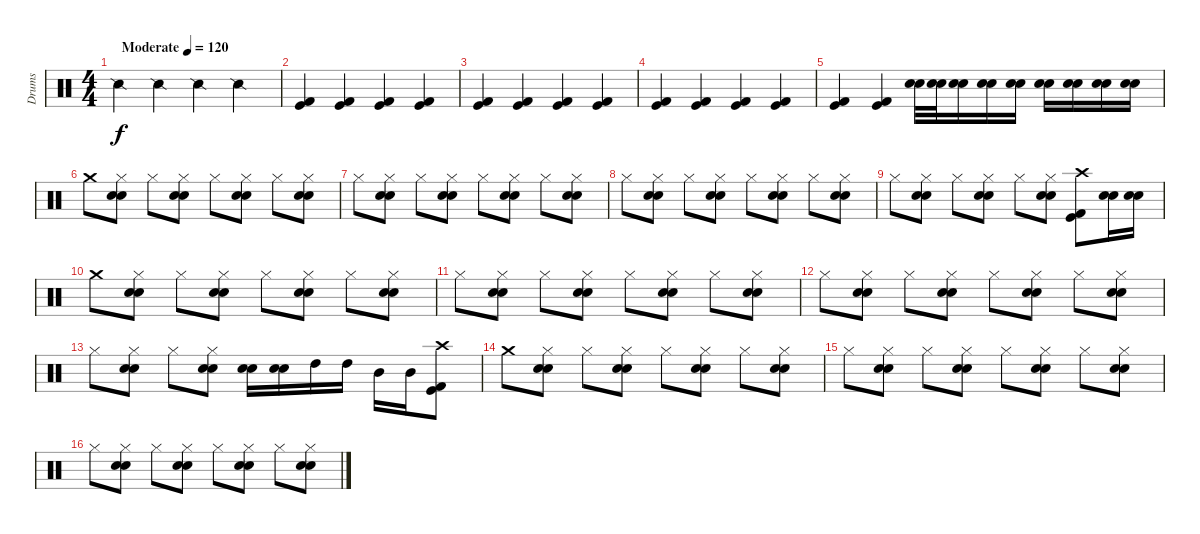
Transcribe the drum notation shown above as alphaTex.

\track ("Drums" "Drums") {instrument percussion}
\staff {score}
\articulation defaults
\ts (4 4)
\tempo (120 "Moderate")
\clef neutral
\ks c "Snare (side stick) 2".4{dy f} "Snare (side stick) 2".4 "Snare (side stick) 2".4 "Snare (side stick) 2".4
|
("Kick (hit) 2" "Kick (hit)").4 ("Kick (hit) 2" "Kick (hit)").4 ("Kick (hit) 2" "Kick (hit)").4 ("Kick (hit) 2" "Kick (hit)").4 |
("Kick (hit) 2" "Kick (hit)").4 ("Kick (hit) 2" "Kick (hit)").4 ("Kick (hit) 2" "Kick (hit)").4 ("Kick (hit) 2" "Kick (hit)").4 |
("Kick (hit) 2" "Kick (hit)").4 ("Kick (hit) 2" "Kick (hit)").4 ("Kick (hit) 2" "Kick (hit)").4 ("Kick (hit) 2" "Kick (hit)").4 |
("Kick (hit) 2" "Kick (hit)").4 ("Kick (hit) 2" "Kick (hit)").4 ("Electric Snare (hit)" "Snare (hit) 2").32 ("Electric Snare (hit)" "Snare (hit) 2").32 ("Electric Snare (hit)" "Snare (hit) 2").16 ("Electric Snare (hit)" "Snare (hit) 2").16 ("Electric Snare (hit)" "Snare (hit) 2").16 ("Electric Snare (hit)" "Snare (hit) 2").16 ("Electric Snare (hit)" "Snare (hit) 2").16 ("Electric Snare (hit)" "Snare (hit) 2").16 ("Electric Snare (hit)" "Snare (hit) 2").16 |
"Crash medium (hit)".8 ("Hi-Hat (closed)" "Electric Snare (hit)" "Snare (hit) 2").8 "Hi-Hat (closed)".8 ("Hi-Hat (closed)" "Electric Snare (hit)" "Snare (hit) 2").8 "Hi-Hat (closed)".8 ("Hi-Hat (closed)" "Electric Snare (hit)" "Snare (hit) 2").8 "Hi-Hat (closed)".8 ("Hi-Hat (closed)" "Electric Snare (hit)" "Snare (hit) 2").8 |
"Hi-Hat (closed)".8 ("Hi-Hat (closed)" "Electric Snare (hit)" "Snare (hit) 2").8 "Hi-Hat (closed)".8 ("Hi-Hat (closed)" "Electric Snare (hit)" "Snare (hit) 2").8 "Hi-Hat (closed)".8 ("Hi-Hat (closed)" "Electric Snare (hit)" "Snare (hit) 2").8 "Hi-Hat (closed)".8 ("Hi-Hat (closed)" "Electric Snare (hit)" "Snare (hit) 2").8 |
"Hi-Hat (closed)".8 ("Hi-Hat (closed)" "Electric Snare (hit)" "Snare (hit) 2").8 "Hi-Hat (closed)".8 ("Hi-Hat (closed)" "Electric Snare (hit)" "Snare (hit) 2").8 "Hi-Hat (closed)".8 ("Hi-Hat (closed)" "Electric Snare (hit)" "Snare (hit) 2").8 "Hi-Hat (closed)".8 ("Hi-Hat (closed)" "Electric Snare (hit)" "Snare (hit) 2").8 |
"Hi-Hat (closed)".8 ("Hi-Hat (closed)" "Electric Snare (hit)" "Snare (hit) 2").8 "Hi-Hat (closed)".8 ("Hi-Hat (closed)" "Electric Snare (hit)" "Snare (hit) 2").8 "Hi-Hat (closed)".8 ("Hi-Hat (closed)" "Electric Snare (hit)" "Snare (hit) 2").8 ("Crash high (hit)" "Kick (hit) 2" "Kick (hit)").8 ("Electric Snare (hit)" "Snare (hit) 2").16 ("Electric Snare (hit)" "Snare (hit) 2").16 |
"Crash medium (hit)".8 ("Hi-Hat (closed)" "Electric Snare (hit)" "Snare (hit) 2").8 "Hi-Hat (closed)".8 ("Hi-Hat (closed)" "Electric Snare (hit)" "Snare (hit) 2").8 "Hi-Hat (closed)".8 ("Hi-Hat (closed)" "Electric Snare (hit)" "Snare (hit) 2").8 "Hi-Hat (closed)".8 ("Hi-Hat (closed)" "Electric Snare (hit)" "Snare (hit) 2").8 |
"Hi-Hat (closed)".8 ("Hi-Hat (closed)" "Electric Snare (hit)" "Snare (hit) 2").8 "Hi-Hat (closed)".8 ("Hi-Hat (closed)" "Electric Snare (hit)" "Snare (hit) 2").8 "Hi-Hat (closed)".8 ("Hi-Hat (closed)" "Electric Snare (hit)" "Snare (hit) 2").8 "Hi-Hat (closed)".8 ("Hi-Hat (closed)" "Electric Snare (hit)" "Snare (hit) 2").8 |
"Hi-Hat (closed)".8 ("Hi-Hat (closed)" "Electric Snare (hit)" "Snare (hit) 2").8 "Hi-Hat (closed)".8 ("Hi-Hat (closed)" "Electric Snare (hit)" "Snare (hit) 2").8 "Hi-Hat (closed)".8 ("Hi-Hat (closed)" "Electric Snare (hit)" "Snare (hit) 2").8 "Hi-Hat (closed)".8 ("Hi-Hat (closed)" "Electric Snare (hit)" "Snare (hit) 2").8 |
"Hi-Hat (closed)".8 ("Hi-Hat (closed)" "Electric Snare (hit)" "Snare (hit) 2").8 "Hi-Hat (closed)".8 ("Hi-Hat (closed)" "Electric Snare (hit)" "Snare (hit) 2").8 ("Electric Snare (hit)" "Snare (hit) 2").16 ("Electric Snare (hit)" "Snare (hit) 2").16 "High Tom (hit)".16 "High Tom (hit)".16 "Mid Tom (hit)".16 "Mid Tom (hit)".16 ("Kick (hit) 2" "Kick (hit)" "Crash high (hit)").8 |
"Crash medium (hit)".8 ("Hi-Hat (closed)" "Electric Snare (hit)" "Snare (hit) 2").8 "Hi-Hat (closed)".8 ("Hi-Hat (closed)" "Electric Snare (hit)" "Snare (hit) 2").8 "Hi-Hat (closed)".8 ("Hi-Hat (closed)" "Electric Snare (hit)" "Snare (hit) 2").8 "Hi-Hat (closed)".8 ("Hi-Hat (closed)" "Electric Snare (hit)" "Snare (hit) 2").8 |
"Hi-Hat (closed)".8 ("Hi-Hat (closed)" "Electric Snare (hit)" "Snare (hit) 2").8 "Hi-Hat (closed)".8 ("Hi-Hat (closed)" "Electric Snare (hit)" "Snare (hit) 2").8 "Hi-Hat (closed)".8 ("Hi-Hat (closed)" "Electric Snare (hit)" "Snare (hit) 2").8 "Hi-Hat (closed)".8 ("Hi-Hat (closed)" "Electric Snare (hit)" "Snare (hit) 2").8 |
"Hi-Hat (closed)".8 ("Hi-Hat (closed)" "Electric Snare (hit)" "Snare (hit) 2").8 "Hi-Hat (closed)".8 ("Hi-Hat (closed)" "Electric Snare (hit)" "Snare (hit) 2").8 "Hi-Hat (closed)".8 ("Hi-Hat (closed)" "Electric Snare (hit)" "Snare (hit) 2").8 "Hi-Hat (closed)".8 ("Hi-Hat (closed)" "Electric Snare (hit)" "Snare (hit) 2").8
